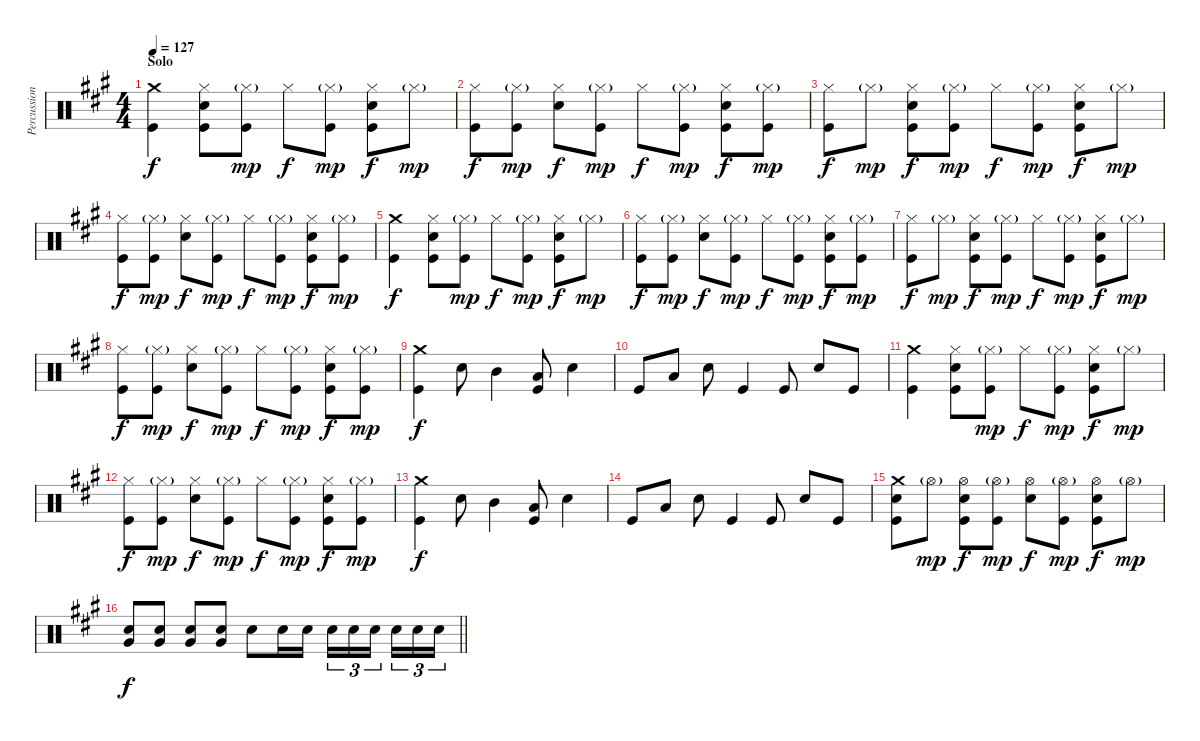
\track ("Percussion" "Percussion") {instrument percussion}
\staff {score}
\articulation defaults
\ts (4 4)
\section ("" "Solo")
\tempo 127
\clef neutral
\ks a
("Crash medium (hit)" "Kick (hit)").4{dy f} ("Hi-Hat (closed)" "Electric Snare (hit)" "Kick (hit)").8 ("Hi-Hat (closed)"{g} "Kick (hit)").8{dy mp} "Hi-Hat (closed)".8{dy f} ("Hi-Hat (closed)"{g} "Kick (hit)").8{dy mp} ("Hi-Hat (closed)" "Electric Snare (hit)" "Kick (hit)").8{dy f} "Hi-Hat (closed)"{g}.8{dy mp} |
("Hi-Hat (closed)" "Kick (hit)").8{dy f} ("Hi-Hat (closed)"{g} "Kick (hit)").8{dy mp} ("Hi-Hat (closed)" "Electric Snare (hit)").8{dy f} ("Hi-Hat (closed)"{g} "Kick (hit)").8{dy mp} "Hi-Hat (closed)".8{dy f} ("Hi-Hat (closed)"{g} "Kick (hit)").8{dy mp} ("Hi-Hat (closed)" "Electric Snare (hit)" "Kick (hit)").8{dy f} ("Hi-Hat (closed)"{g} "Kick (hit)").8{dy mp} |
("Hi-Hat (closed)" "Kick (hit)").8{dy f} "Hi-Hat (closed)"{g}.8{dy mp} ("Hi-Hat (closed)" "Electric Snare (hit)" "Kick (hit)").8{dy f} ("Hi-Hat (closed)"{g} "Kick (hit)").8{dy mp} "Hi-Hat (closed)".8{dy f} ("Hi-Hat (closed)"{g} "Kick (hit)").8{dy mp} ("Hi-Hat (closed)" "Electric Snare (hit)" "Kick (hit)").8{dy f} "Hi-Hat (closed)"{g}.8{dy mp} |
("Hi-Hat (closed)" "Kick (hit)").8{dy f} ("Hi-Hat (closed)"{g} "Kick (hit)").8{dy mp} ("Hi-Hat (closed)" "Electric Snare (hit)").8{dy f} ("Hi-Hat (closed)"{g} "Kick (hit)").8{dy mp} "Hi-Hat (closed)".8{dy f} ("Hi-Hat (closed)"{g} "Kick (hit)").8{dy mp} ("Hi-Hat (closed)" "Electric Snare (hit)" "Kick (hit)").8{dy f} ("Hi-Hat (closed)"{g} "Kick (hit)").8{dy mp} |
("Crash medium (hit)" "Kick (hit)").4{dy f} ("Hi-Hat (closed)" "Electric Snare (hit)" "Kick (hit)").8 ("Hi-Hat (closed)"{g} "Kick (hit)").8{dy mp} "Hi-Hat (closed)".8{dy f} ("Hi-Hat (closed)"{g} "Kick (hit)").8{dy mp} ("Hi-Hat (closed)" "Electric Snare (hit)" "Kick (hit)").8{dy f} "Hi-Hat (closed)"{g}.8{dy mp} |
("Hi-Hat (closed)" "Kick (hit)").8{dy f} ("Hi-Hat (closed)"{g} "Kick (hit)").8{dy mp} ("Hi-Hat (closed)" "Electric Snare (hit)").8{dy f} ("Hi-Hat (closed)"{g} "Kick (hit)").8{dy mp} "Hi-Hat (closed)".8{dy f} ("Hi-Hat (closed)"{g} "Kick (hit)").8{dy mp} ("Hi-Hat (closed)" "Electric Snare (hit)" "Kick (hit)").8{dy f} ("Hi-Hat (closed)"{g} "Kick (hit)").8{dy mp} |
("Hi-Hat (closed)" "Kick (hit)").8{dy f} "Hi-Hat (closed)"{g}.8{dy mp} ("Hi-Hat (closed)" "Electric Snare (hit)" "Kick (hit)").8{dy f} ("Hi-Hat (closed)"{g} "Kick (hit)").8{dy mp} "Hi-Hat (closed)".8{dy f} ("Hi-Hat (closed)"{g} "Kick (hit)").8{dy mp} ("Hi-Hat (closed)" "Electric Snare (hit)" "Kick (hit)").8{dy f} "Hi-Hat (closed)"{g}.8{dy mp} |
("Hi-Hat (closed)" "Kick (hit)").8{dy f} ("Hi-Hat (closed)"{g} "Kick (hit)").8{dy mp} ("Hi-Hat (closed)" "Electric Snare (hit)").8{dy f} ("Hi-Hat (closed)"{g} "Kick (hit)").8{dy mp} "Hi-Hat (closed)".8{dy f} ("Hi-Hat (closed)"{g} "Kick (hit)").8{dy mp} ("Hi-Hat (closed)" "Electric Snare (hit)" "Kick (hit)").8{dy f} ("Hi-Hat (closed)"{g} "Kick (hit)").8{dy mp} |
("Crash medium (hit)" "Kick (hit)").4{dy f} "Electric Snare (hit)".8 "Mid Tom (hit)".4 ("Low Tom (hit)" "Kick (hit)").8 "Electric Snare (hit)".4 |
"Kick (hit)".8 "Low Floor Tom (hit)".8 "Electric Snare (hit)".8 "Kick (hit)".4 "Kick (hit)".8 "Electric Snare (hit)".8 "Kick (hit)".8 |
("Crash medium (hit)" "Kick (hit)").4 ("Hi-Hat (closed)" "Electric Snare (hit)" "Kick (hit)").8 ("Hi-Hat (closed)"{g} "Kick (hit)").8{dy mp} "Hi-Hat (closed)".8{dy f} ("Hi-Hat (closed)"{g} "Kick (hit)").8{dy mp} ("Hi-Hat (closed)" "Electric Snare (hit)" "Kick (hit)").8{dy f} "Hi-Hat (closed)"{g}.8{dy mp} |
("Hi-Hat (closed)" "Kick (hit)").8{dy f} ("Hi-Hat (closed)"{g} "Kick (hit)").8{dy mp} ("Hi-Hat (closed)" "Electric Snare (hit)").8{dy f} ("Hi-Hat (closed)"{g} "Kick (hit)").8{dy mp} "Hi-Hat (closed)".8{dy f} ("Hi-Hat (closed)"{g} "Kick (hit)").8{dy mp} ("Hi-Hat (closed)" "Electric Snare (hit)" "Kick (hit)").8{dy f} ("Hi-Hat (closed)"{g} "Kick (hit)").8{dy mp} |
("Crash medium (hit)" "Kick (hit)").4{dy f} "Electric Snare (hit)".8 "Mid Tom (hit)".4 ("Low Tom (hit)" "Kick (hit)").8 "Electric Snare (hit)".4 |
"Kick (hit)".8 "Low Floor Tom (hit)".8 "Electric Snare (hit)".8 "Kick (hit)".4 "Kick (hit)".8 "Electric Snare (hit)".8 "Kick (hit)".8 |
("Crash medium (hit)" "Electric Snare (hit)" "Kick (hit)").8 "Hi-Hat (open)"{g}.8{dy mp} ("Hi-Hat (open)" "Electric Snare (hit)" "Kick (hit)").8{dy f} ("Hi-Hat (open)"{g} "Kick (hit)").8{dy mp} ("Hi-Hat (open)" "Electric Snare (hit)").8{dy f} ("Hi-Hat (open)"{g} "Kick (hit)").8{dy mp} ("Hi-Hat (open)" "Electric Snare (hit)" "Kick (hit)").8{dy f} "Hi-Hat (open)"{g}.8{dy mp} |
\barLineRight lightlight
("Very Low Tom (hit)" "Electric Snare (hit)").8{dy f} ("Very Low Tom (hit)" "Electric Snare (hit)").8 ("Very Low Tom (hit)" "Electric Snare (hit)").8 ("Very Low Tom (hit)" "Electric Snare (hit)").8 "Electric Snare (hit)".8 "Electric Snare (hit)".16 "Electric Snare (hit)".16 "Electric Snare (hit)".16{tu (3 2)} "Electric Snare (hit)".16{tu (3 2)} "Electric Snare (hit)".16{tu (3 2) beam splitsecondary} "Electric Snare (hit)".16{tu (3 2)} "Electric Snare (hit)".16{tu (3 2)} "Electric Snare (hit)".16{tu (3 2)}
